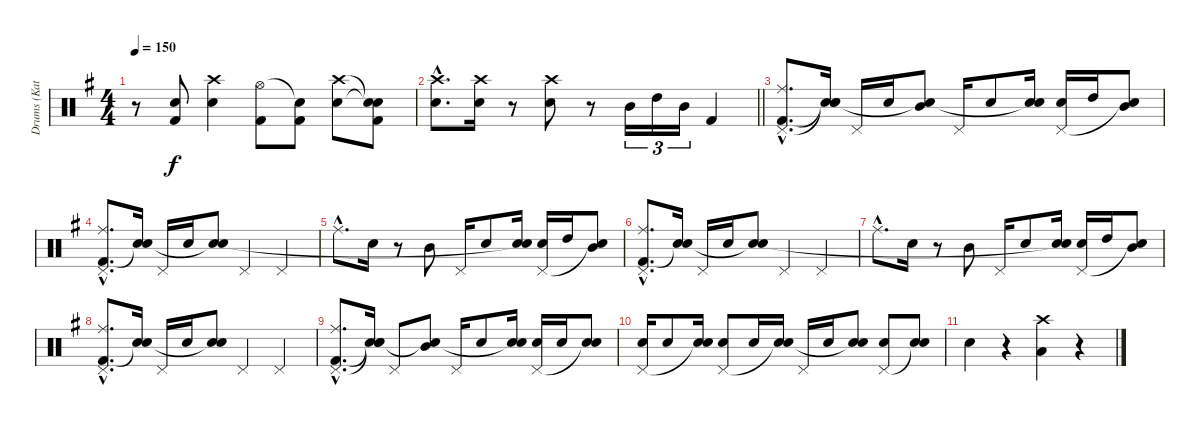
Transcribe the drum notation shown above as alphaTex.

\track ("Drums (Katsuji)" "Drums (Kat") {instrument percussion}
\staff {score}
\articulation defaults
\ts (4 4)
\tempo 150
\clef neutral
\ks g
r.8{dy f} ("Snare (hit)"{t} "Kick (hit) 2").8 ("Crash high (hit)" "Snare (hit) 2").4 ("Hi-Hat (open)" "Kick (hit) 2").8 ("Snare (hit)"{t} "Kick (hit) 2").8 ("Crash high (hit)" "Snare (hit) 2").8 ("Snare (hit)"{t} "Snare (hit)"{t} "Kick (hit) 2").8 |
\barLineRight lightlight
("Crash high (hit)"{hac} "Snare (hit) 2"{hac}).8{d} ("Crash high (hit)" "Snare (hit) 2").16 r.8 ("Crash high (hit)" "Snare (hit) 2").8 r.8 "Mid Tom (hit)".16{tu (3 2)} "High Tom (hit)".16{tu (3 2)} "Mid Tom (hit)".16{tu (3 2)} "Kick (hit) 2".4 |
("Ride (middle)"{hac} "Pedal Hi-Hat (hit)"{hac} "Kick (hit) 2"{hac}).8{d} ("Snare (hit) 2" "Snare (hit)"{t} "Snare (hit)"{t}).16 "Pedal Hi-Hat (hit)".16 "Snare (hit) 2".16 ("Mid Tom (hit)" "Snare (hit)"{t}).8 "Pedal Hi-Hat (hit)".16 "Snare (hit) 2".8 ("Snare (hit) 2" "Snare (hit)"{t}).16 ("Snare (hit) 2" "Pedal Hi-Hat (hit)").16 "High Tom (hit)".16 ("Mid Tom (hit)" "Snare (hit)"{t}).8 |
("Ride (middle)"{hac} "Kick (hit) 2"{hac} "Pedal Hi-Hat (hit)"{hac}).8{d} ("Snare (hit) 2" "Snare (hit)"{t}).16 "Pedal Hi-Hat (hit)".16 "Snare (hit) 2".16 ("Snare (hit) 2" "Snare (hit)"{t}).8 "Pedal Hi-Hat (hit)".4 "Pedal Hi-Hat (hit)".4 |
"Ride (middle)"{hac}.8{d} "Snare (hit) 2".16 r.8 "Mid Tom (hit)".8 "Pedal Hi-Hat (hit)".16 "Snare (hit) 2".8 ("Snare (hit) 2" "Snare (hit)"{t}).16 ("Snare (hit) 2" "Pedal Hi-Hat (hit)").16 "High Tom (hit)".16 ("Mid Tom (hit)" "Snare (hit)"{t}).8 |
("Ride (middle)"{hac} "Kick (hit) 2"{hac} "Pedal Hi-Hat (hit)"{hac}).8{d} ("Snare (hit) 2" "Snare (hit)"{t}).16 "Pedal Hi-Hat (hit)".16 "Snare (hit) 2".16 ("Snare (hit) 2" "Snare (hit)"{t}).8 "Pedal Hi-Hat (hit)".4 "Pedal Hi-Hat (hit)".4 |
"Ride (middle)"{hac}.8{d} "Snare (hit) 2".16 r.8 "Mid Tom (hit)".8 "Pedal Hi-Hat (hit)".16 "Snare (hit) 2".8 ("Snare (hit) 2" "Snare (hit)"{t}).16 ("Snare (hit) 2" "Pedal Hi-Hat (hit)").16 "High Tom (hit)".16 ("Mid Tom (hit)" "Snare (hit)"{t}).8 |
("Ride (middle)"{hac} "Kick (hit) 2"{hac} "Pedal Hi-Hat (hit)"{hac}).8{d} ("Snare (hit) 2" "Snare (hit)"{t}).16 "Pedal Hi-Hat (hit)".16 "Snare (hit) 2".16 ("Snare (hit) 2" "Snare (hit)"{t}).8 "Pedal Hi-Hat (hit)".4 "Pedal Hi-Hat (hit)".4 |
("Ride (middle)"{hac} "Kick (hit) 2"{hac} "Pedal Hi-Hat (hit)"{hac}).8{d} ("Snare (hit) 2" "Snare (hit)"{t} "Snare (hit)"{t}).16 "Pedal Hi-Hat (hit)".8 ("Mid Tom (hit)" "Snare (hit)"{t}).8 "Pedal Hi-Hat (hit)".16 "Snare (hit) 2".8 ("Snare (hit) 2" "Snare (hit)"{t}).16 ("Snare (hit) 2" "Pedal Hi-Hat (hit)").16 "Snare (hit) 2".16 ("Snare (hit) 2" "Snare (hit)"{t}).8 |
("Snare (hit) 2" "Pedal Hi-Hat (hit)").16 "Snare (hit) 2".8 ("Snare (hit) 2" "Snare (hit)"{t}).16 ("Snare (hit) 2" "Pedal Hi-Hat (hit)").8 "Snare (hit) 2".16 ("Snare (hit) 2" "Snare (hit)"{t}).16 "Pedal Hi-Hat (hit)".16 "Snare (hit) 2".16 ("Snare (hit) 2" "Snare (hit)"{t}).8 ("Snare (hit) 2" "Pedal Hi-Hat (hit)").8 ("Snare (hit) 2" "Snare (hit)"{t}).8 |
"Snare (hit) 2".4 r.4 ("Crash high (hit)" "Low Floor Tom (hit)").4 r.4
